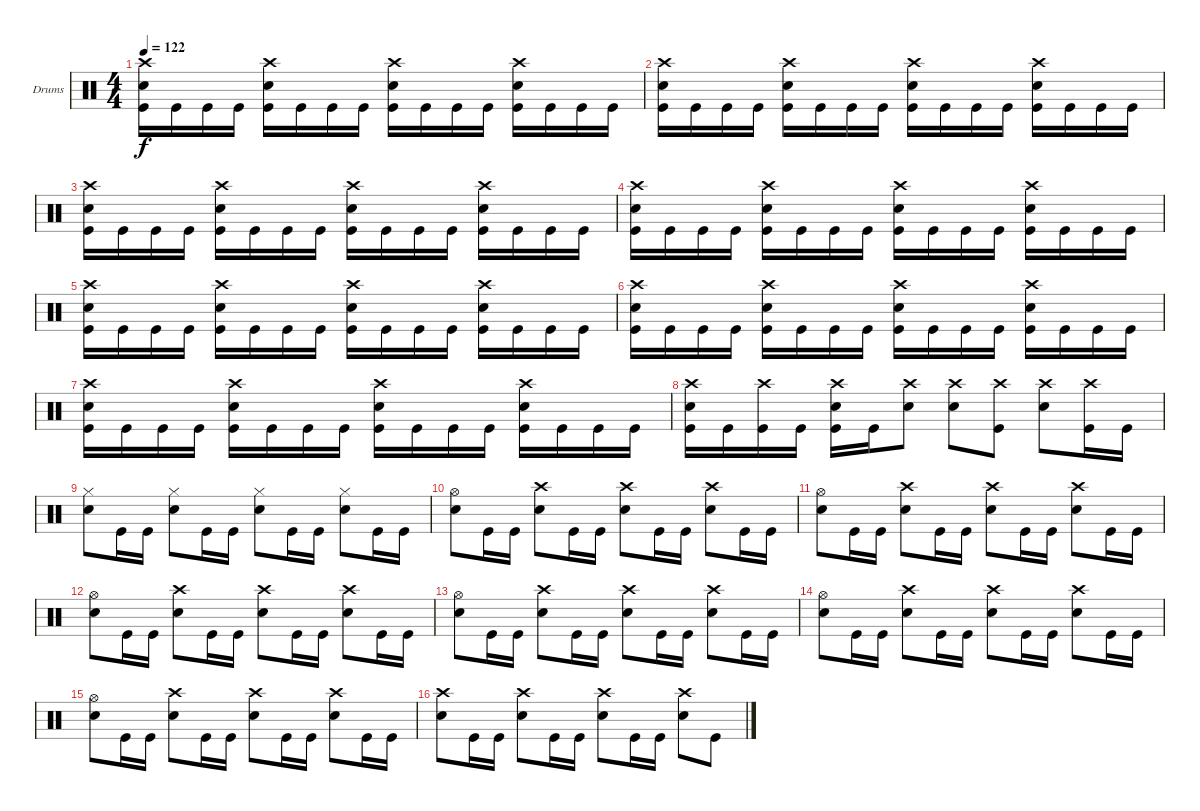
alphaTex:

\bracketExtendMode groupsimilarinstruments
\firstSystemTrackNameOrientation horizontal
\otherSystemsTrackNameOrientation horizontal
\track ("Drumkit" "Drums") {instrument percussion}
\staff {score}
\articulation defaults
\ts (4 4)
\tempo 122
\clef neutral
\ks c
("Kick (hit)" "Snare (hit) 2" "Crash high (hit)").16{dy f} "Kick (hit)".16 "Kick (hit)".16 "Kick (hit)".16 ("Kick (hit)" "Snare (hit) 2" "Crash high (hit)").16 "Kick (hit)".16 "Kick (hit)".16 "Kick (hit)".16 ("Kick (hit)" "Snare (hit) 2" "Crash high (hit)").16 "Kick (hit)".16 "Kick (hit)".16 "Kick (hit)".16 ("Kick (hit)" "Snare (hit) 2" "Crash high (hit)").16 "Kick (hit)".16 "Kick (hit)".16 "Kick (hit)".16 |
("Kick (hit)" "Snare (hit) 2" "Crash high (hit)").16 "Kick (hit)".16 "Kick (hit)".16 "Kick (hit)".16 ("Kick (hit)" "Snare (hit) 2" "Crash high (hit)").16 "Kick (hit)".16 "Kick (hit)".16 "Kick (hit)".16 ("Kick (hit)" "Snare (hit) 2" "Crash high (hit)").16 "Kick (hit)".16 "Kick (hit)".16 "Kick (hit)".16 ("Kick (hit)" "Snare (hit) 2" "Crash high (hit)").16 "Kick (hit)".16 "Kick (hit)".16 "Kick (hit)".16 |
("Kick (hit)" "Snare (hit) 2" "Crash high (hit)").16 "Kick (hit)".16 "Kick (hit)".16 "Kick (hit)".16 ("Kick (hit)" "Snare (hit) 2" "Crash high (hit)").16 "Kick (hit)".16 "Kick (hit)".16 "Kick (hit)".16 ("Kick (hit)" "Snare (hit) 2" "Crash high (hit)").16 "Kick (hit)".16 "Kick (hit)".16 "Kick (hit)".16 ("Kick (hit)" "Snare (hit) 2" "Crash high (hit)").16 "Kick (hit)".16 "Kick (hit)".16 "Kick (hit)".16 |
("Kick (hit)" "Snare (hit) 2" "Crash high (hit)").16 "Kick (hit)".16 "Kick (hit)".16 "Kick (hit)".16 ("Kick (hit)" "Snare (hit) 2" "Crash high (hit)").16 "Kick (hit)".16 "Kick (hit)".16 "Kick (hit)".16 ("Kick (hit)" "Snare (hit) 2" "Crash high (hit)").16 "Kick (hit)".16 "Kick (hit)".16 "Kick (hit)".16 ("Kick (hit)" "Snare (hit) 2" "Crash high (hit)").16 "Kick (hit)".16 "Kick (hit)".16 "Kick (hit)".16 |
("Kick (hit)" "Snare (hit) 2" "Crash high (hit)").16 "Kick (hit)".16 "Kick (hit)".16 "Kick (hit)".16 ("Kick (hit)" "Snare (hit) 2" "Crash high (hit)").16 "Kick (hit)".16 "Kick (hit)".16 "Kick (hit)".16 ("Kick (hit)" "Snare (hit) 2" "Crash high (hit)").16 "Kick (hit)".16 "Kick (hit)".16 "Kick (hit)".16 ("Kick (hit)" "Snare (hit) 2" "Crash high (hit)").16 "Kick (hit)".16 "Kick (hit)".16 "Kick (hit)".16 |
("Kick (hit)" "Snare (hit) 2" "Crash high (hit)").16 "Kick (hit)".16 "Kick (hit)".16 "Kick (hit)".16 ("Kick (hit)" "Snare (hit) 2" "Crash high (hit)").16 "Kick (hit)".16 "Kick (hit)".16 "Kick (hit)".16 ("Kick (hit)" "Snare (hit) 2" "Crash high (hit)").16 "Kick (hit)".16 "Kick (hit)".16 "Kick (hit)".16 ("Kick (hit)" "Snare (hit) 2" "Crash high (hit)").16 "Kick (hit)".16 "Kick (hit)".16 "Kick (hit)".16 |
("Kick (hit)" "Snare (hit) 2" "Crash high (hit)").16 "Kick (hit)".16 "Kick (hit)".16 "Kick (hit)".16 ("Kick (hit)" "Snare (hit) 2" "Crash high (hit)").16 "Kick (hit)".16 "Kick (hit)".16 "Kick (hit)".16 ("Kick (hit)" "Snare (hit) 2" "Crash high (hit)").16 "Kick (hit)".16 "Kick (hit)".16 "Kick (hit)".16 ("Kick (hit)" "Snare (hit) 2" "Crash high (hit)").16 "Kick (hit)".16 "Kick (hit)".16 "Kick (hit)".16 |
("Kick (hit)" "Snare (hit) 2" "Crash high (hit)").16 "Kick (hit)".16 ("Kick (hit)" "Crash high (hit)").16 "Kick (hit)".16 ("Kick (hit)" "Snare (hit) 2" "Crash high (hit)").16 "Kick (hit)".16 ("Snare (hit) 2" "Crash high (hit)").8 ("Snare (hit) 2" "Crash high (hit)").8 ("Kick (hit)" "Crash high (hit)").8 ("Snare (hit) 2" "Crash high (hit)").8 ("Kick (hit)" "Crash high (hit)").16 "Kick (hit)".16 |
("Snare (hit) 2" "Hi-Hat (closed)").8 "Kick (hit)".16 "Kick (hit)".16 ("Snare (hit) 2" "Hi-Hat (closed)").8 "Kick (hit)".16 "Kick (hit)".16 ("Snare (hit) 2" "Hi-Hat (closed)").8 "Kick (hit)".16 "Kick (hit)".16 ("Snare (hit) 2" "Hi-Hat (closed)").8 "Kick (hit)".16 "Kick (hit)".16 |
("Snare (hit) 2" "Hi-Hat (open)").8 "Kick (hit)".16 "Kick (hit)".16 ("Snare (hit) 2" "Crash high (hit)").8 "Kick (hit)".16 "Kick (hit)".16 ("Snare (hit) 2" "Crash high (hit)").8 "Kick (hit)".16 "Kick (hit)".16 ("Snare (hit) 2" "Crash high (hit)").8 "Kick (hit)".16 "Kick (hit)".16 |
("Snare (hit) 2" "Hi-Hat (open)").8 "Kick (hit)".16 "Kick (hit)".16 ("Snare (hit) 2" "Crash high (hit)").8 "Kick (hit)".16 "Kick (hit)".16 ("Snare (hit) 2" "Crash high (hit)").8 "Kick (hit)".16 "Kick (hit)".16 ("Snare (hit) 2" "Crash high (hit)").8 "Kick (hit)".16 "Kick (hit)".16 |
("Snare (hit) 2" "Hi-Hat (open)").8 "Kick (hit)".16 "Kick (hit)".16 ("Snare (hit) 2" "Crash high (hit)").8 "Kick (hit)".16 "Kick (hit)".16 ("Snare (hit) 2" "Crash high (hit)").8 "Kick (hit)".16 "Kick (hit)".16 ("Snare (hit) 2" "Crash high (hit)").8 "Kick (hit)".16 "Kick (hit)".16 |
("Snare (hit) 2" "Hi-Hat (open)").8 "Kick (hit)".16 "Kick (hit)".16 ("Snare (hit) 2" "Crash high (hit)").8 "Kick (hit)".16 "Kick (hit)".16 ("Snare (hit) 2" "Crash high (hit)").8 "Kick (hit)".16 "Kick (hit)".16 ("Snare (hit) 2" "Crash high (hit)").8 "Kick (hit)".16 "Kick (hit)".16 |
("Snare (hit) 2" "Hi-Hat (open)").8 "Kick (hit)".16 "Kick (hit)".16 ("Snare (hit) 2" "Crash high (hit)").8 "Kick (hit)".16 "Kick (hit)".16 ("Snare (hit) 2" "Crash high (hit)").8 "Kick (hit)".16 "Kick (hit)".16 ("Snare (hit) 2" "Crash high (hit)").8 "Kick (hit)".16 "Kick (hit)".16 |
("Snare (hit) 2" "Hi-Hat (open)").8 "Kick (hit)".16 "Kick (hit)".16 ("Snare (hit) 2" "Crash high (hit)").8 "Kick (hit)".16 "Kick (hit)".16 ("Snare (hit) 2" "Crash high (hit)").8 "Kick (hit)".16 "Kick (hit)".16 ("Snare (hit) 2" "Crash high (hit)").8 "Kick (hit)".16 "Kick (hit)".16 |
("Snare (hit) 2" "Crash high (hit)").8 "Kick (hit)".16 "Kick (hit)".16 ("Snare (hit) 2" "Crash high (hit)").8 "Kick (hit)".16 "Kick (hit)".16 ("Snare (hit) 2" "Crash high (hit)").8 "Kick (hit)".16 "Kick (hit)".16 ("Snare (hit) 2" "Crash high (hit)").8 "Kick (hit)".8
